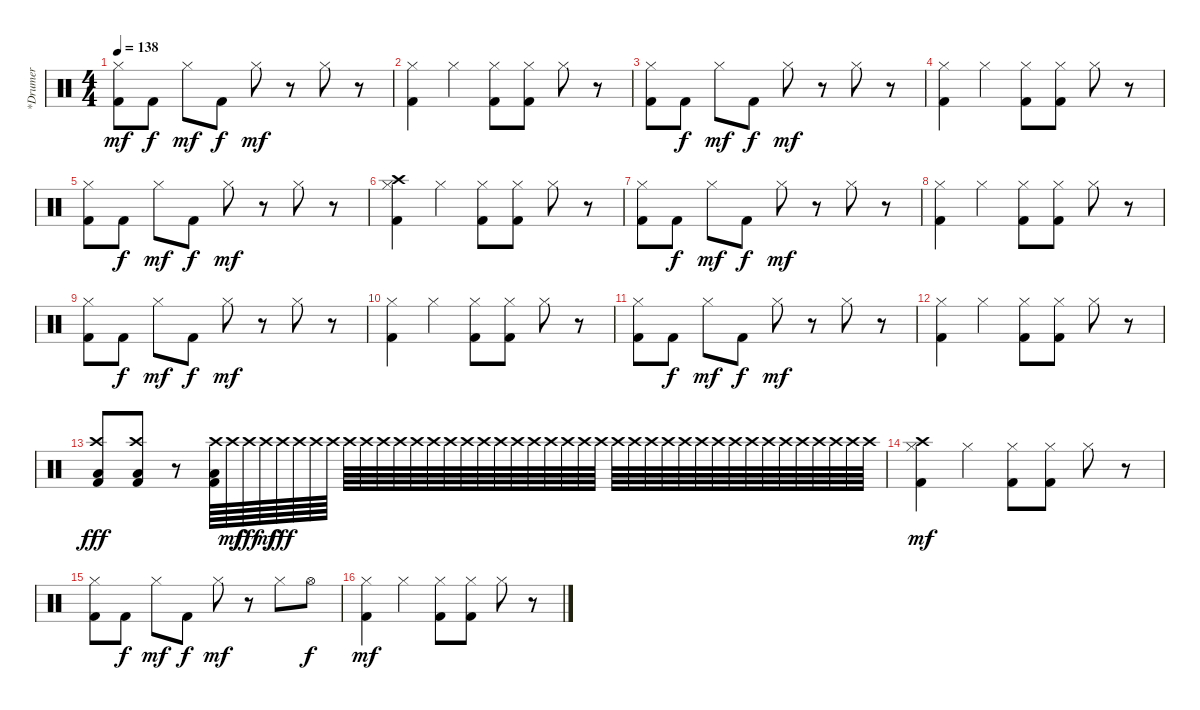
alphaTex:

\track ("*Drumer" "*Drumer") {instrument percussion}
\staff {score}
\articulation defaults
\ts (4 4)
\tempo 138
\clef neutral
\ks c
("Hi-Hat (closed)" "Kick (hit) 2").8{dy mf} "Kick (hit) 2".8{dy f} "Hi-Hat (closed)".8{dy mf} "Kick (hit) 2".8{dy f} "Hi-Hat (closed)".8{dy mf} r.8 "Hi-Hat (closed)".8 r.8 |
("Hi-Hat (closed)" "Kick (hit) 2").4 "Hi-Hat (closed)".4 ("Hi-Hat (closed)" "Kick (hit) 2").8 ("Hi-Hat (closed)" "Kick (hit) 2").8 "Hi-Hat (closed)".8 r.8 |
("Hi-Hat (closed)" "Kick (hit) 2").8 "Kick (hit) 2".8{dy f} "Hi-Hat (closed)".8{dy mf} "Kick (hit) 2".8{dy f} "Hi-Hat (closed)".8{dy mf} r.8 "Hi-Hat (closed)".8 r.8 |
("Hi-Hat (closed)" "Kick (hit) 2").4 "Hi-Hat (closed)".4 ("Hi-Hat (closed)" "Kick (hit) 2").8 ("Hi-Hat (closed)" "Kick (hit) 2").8 "Hi-Hat (closed)".8 r.8 |
("Hi-Hat (closed)" "Kick (hit) 2").8 "Kick (hit) 2".8{dy f} "Hi-Hat (closed)".8{dy mf} "Kick (hit) 2".8{dy f} "Hi-Hat (closed)".8{dy mf} r.8 "Hi-Hat (closed)".8 r.8 |
("Crash high (hit)" "Hi-Hat (closed)" "Kick (hit) 2").4 "Hi-Hat (closed)".4 ("Hi-Hat (closed)" "Kick (hit) 2").8 ("Hi-Hat (closed)" "Kick (hit) 2").8 "Hi-Hat (closed)".8 r.8 |
("Hi-Hat (closed)" "Kick (hit) 2").8 "Kick (hit) 2".8{dy f} "Hi-Hat (closed)".8{dy mf} "Kick (hit) 2".8{dy f} "Hi-Hat (closed)".8{dy mf} r.8 "Hi-Hat (closed)".8 r.8 |
("Hi-Hat (closed)" "Kick (hit) 2").4 "Hi-Hat (closed)".4 ("Hi-Hat (closed)" "Kick (hit) 2").8 ("Hi-Hat (closed)" "Kick (hit) 2").8 "Hi-Hat (closed)".8 r.8 |
("Hi-Hat (closed)" "Kick (hit) 2").8 "Kick (hit) 2".8{dy f} "Hi-Hat (closed)".8{dy mf} "Kick (hit) 2".8{dy f} "Hi-Hat (closed)".8{dy mf} r.8 "Hi-Hat (closed)".8 r.8 |
("Hi-Hat (closed)" "Kick (hit) 2").4 "Hi-Hat (closed)".4 ("Hi-Hat (closed)" "Kick (hit) 2").8 ("Hi-Hat (closed)" "Kick (hit) 2").8 "Hi-Hat (closed)".8 r.8 |
("Hi-Hat (closed)" "Kick (hit) 2").8 "Kick (hit) 2".8{dy f} "Hi-Hat (closed)".8{dy mf} "Kick (hit) 2".8{dy f} "Hi-Hat (closed)".8{dy mf} r.8 "Hi-Hat (closed)".8 r.8 |
("Hi-Hat (closed)" "Kick (hit) 2").4 "Hi-Hat (closed)".4 ("Hi-Hat (closed)" "Kick (hit) 2").8 ("Hi-Hat (closed)" "Kick (hit) 2").8 "Hi-Hat (closed)".8 r.8 |
("Crash high (hit)" "Low Tom (hit)" "Kick (hit) 2").8{dy fff} ("Crash high (hit)" "Low Tom (hit)" "Kick (hit) 2").8 r.8 ("Crash high (hit)" "Low Tom (hit)" "Kick (hit) 2").64{volume 0} "Crash high (hit)".64{dy mf} "Crash high (hit)".64{dy fff} "Crash high (hit)".64{dy mf} "Crash high (hit)".64{dy fff} "Crash high (hit)".64 "Crash high (hit)".64 "Crash high (hit)".64 "Crash high (hit)".64 "Crash high (hit)".64 "Crash high (hit)".64 "Crash high (hit)".64 "Crash high (hit)".64 "Crash high (hit)".64 "Crash high (hit)".64 "Crash high (hit)".64 "Crash high (hit)".64 "Crash high (hit)".64 "Crash high (hit)".64 "Crash high (hit)".64 "Crash high (hit)".64 "Crash high (hit)".64 "Crash high (hit)".64 "Crash high (hit)".64 "Crash high (hit)".64 "Crash high (hit)".64 "Crash high (hit)".64 "Crash high (hit)".64 "Crash high (hit)".64 "Crash high (hit)".64 "Crash high (hit)".64 "Crash high (hit)".64 "Crash high (hit)".64 "Crash high (hit)".64 "Crash high (hit)".64 "Crash high (hit)".64 "Crash high (hit)".64 "Crash high (hit)".64 "Crash high (hit)".64 "Crash high (hit)".64 |
("Crash high (hit)" "Hi-Hat (closed)" "Kick (hit) 2").4{dy mf volume 14} "Hi-Hat (closed)".4 ("Hi-Hat (closed)" "Kick (hit) 2").8 ("Hi-Hat (closed)" "Kick (hit) 2").8 "Hi-Hat (closed)".8 r.8 |
("Hi-Hat (closed)" "Kick (hit) 2").8 "Kick (hit) 2".8{dy f} "Hi-Hat (closed)".8{dy mf} "Kick (hit) 2".8{dy f} "Hi-Hat (closed)".8{dy mf} r.8 "Hi-Hat (closed)".8 "Hi-Hat (open)".8{dy f} |
("Hi-Hat (closed)" "Kick (hit) 2").4{dy mf} "Hi-Hat (closed)".4 ("Hi-Hat (closed)" "Kick (hit) 2").8 ("Hi-Hat (closed)" "Kick (hit) 2").8 "Hi-Hat (closed)".8 r.8
